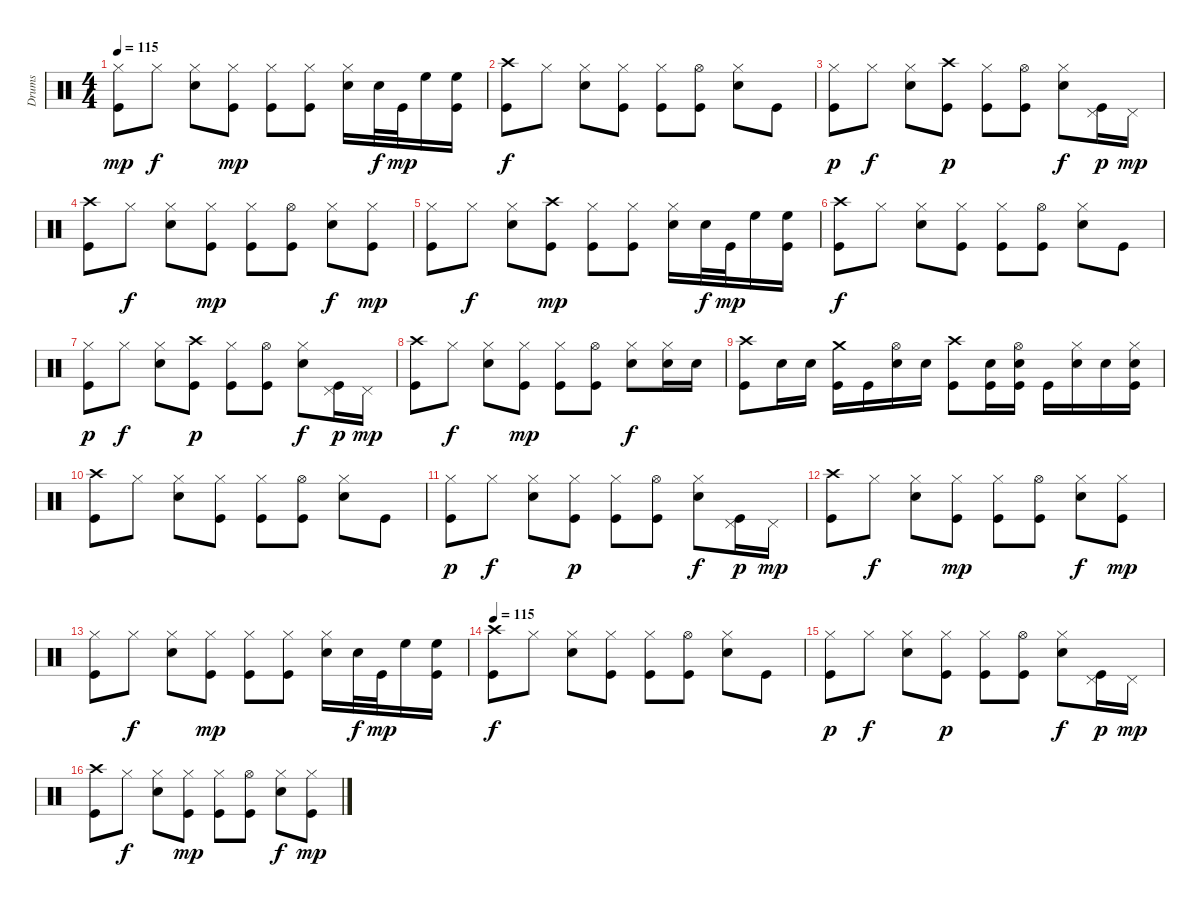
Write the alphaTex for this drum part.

\track ("Drums" "Drums") {instrument percussion}
\staff {score}
\articulation defaults
\ts (4 4)
\tempo 115
\clef neutral
\ks c
("Hi-Hat (closed)" "Kick (hit)").8{dy mp} "Hi-Hat (closed)".8{dy f} ("Hi-Hat (closed)" "Snare (hit) 2").8 ("Hi-Hat (closed)" "Kick (hit)").8{dy mp} ("Hi-Hat (closed)" "Kick (hit)").8 ("Hi-Hat (closed)" "Kick (hit)").8 ("Hi-Hat (closed)" "Snare (hit) 2").16 "Snare (hit) 2".32{dy f} "Kick (hit)".32{dy mp} "High Floor Tom (hit)".16 ("High Floor Tom (hit)" "Kick (hit)").16 |
("Crash high (hit)" "Kick (hit)").8{dy f} "Hi-Hat (closed)".8 ("Hi-Hat (closed)" "Snare (hit) 2").8 ("Hi-Hat (closed)" "Kick (hit)").8 ("Hi-Hat (closed)" "Kick (hit)").8 ("Hi-Hat (open)" "Kick (hit)").8 ("Hi-Hat (closed)" "Snare (hit) 2").8 "Kick (hit)".8 |
("Hi-Hat (closed)" "Kick (hit)").8{dy p} "Hi-Hat (closed)".8{dy f} ("Hi-Hat (closed)" "Snare (hit) 2").8 ("Crash high (hit)" "Kick (hit)").8{dy p} ("Hi-Hat (closed)" "Kick (hit)").8 ("Hi-Hat (open)" "Kick (hit)").8 ("Hi-Hat (closed)" "Snare (hit) 2").8{dy f} ("Pedal Hi-Hat (hit)" "Kick (hit)").16{dy p} "Pedal Hi-Hat (hit)".16{dy mp} |
("Crash high (hit)" "Kick (hit)").8 "Hi-Hat (closed)".8{dy f} ("Hi-Hat (closed)" "Snare (hit) 2").8 ("Hi-Hat (closed)" "Kick (hit)").8{dy mp} ("Hi-Hat (closed)" "Kick (hit)").8 ("Hi-Hat (open)" "Kick (hit)").8 ("Hi-Hat (closed)" "Snare (hit) 2").8{dy f} ("Hi-Hat (closed)" "Kick (hit)").8{dy mp} |
("Hi-Hat (closed)" "Kick (hit)").8 "Hi-Hat (closed)".8{dy f} ("Hi-Hat (closed)" "Snare (hit) 2").8 ("Crash high (hit)" "Kick (hit)").8{dy mp} ("Hi-Hat (closed)" "Kick (hit)").8 ("Hi-Hat (closed)" "Kick (hit)").8 ("Hi-Hat (closed)" "Snare (hit) 2").16 "Snare (hit) 2".32{dy f} "Kick (hit)".32{dy mp} "High Floor Tom (hit)".16 ("High Floor Tom (hit)" "Kick (hit)").16 |
("Crash high (hit)" "Kick (hit)").8{dy f} "Hi-Hat (closed)".8 ("Hi-Hat (closed)" "Snare (hit) 2").8 ("Hi-Hat (closed)" "Kick (hit)").8 ("Hi-Hat (closed)" "Kick (hit)").8 ("Hi-Hat (open)" "Kick (hit)").8 ("Hi-Hat (closed)" "Snare (hit) 2").8 "Kick (hit)".8 |
("Hi-Hat (closed)" "Kick (hit)").8{dy p} "Hi-Hat (closed)".8{dy f} ("Hi-Hat (closed)" "Snare (hit) 2").8 ("Crash high (hit)" "Kick (hit)").8{dy p} ("Hi-Hat (closed)" "Kick (hit)").8 ("Hi-Hat (open)" "Kick (hit)").8 ("Hi-Hat (closed)" "Snare (hit) 2").8{dy f} ("Pedal Hi-Hat (hit)" "Kick (hit)").16{dy p} "Pedal Hi-Hat (hit)".16{dy mp} |
("Crash high (hit)" "Kick (hit)").8 "Hi-Hat (closed)".8{dy f} ("Hi-Hat (closed)" "Snare (hit) 2").8 ("Hi-Hat (closed)" "Kick (hit)").8{dy mp} ("Hi-Hat (closed)" "Kick (hit)").8 ("Hi-Hat (open)" "Kick (hit)").8 ("Hi-Hat (closed)" "Snare (hit) 2").8{dy f} ("Hi-Hat (closed)" "Snare (hit) 2").16 "Snare (hit) 2".16 |
("Crash high (hit)" "Kick (hit)").8 "Snare (hit) 2".16 "Snare (hit) 2".16 ("Crash medium (hit)" "Kick (hit)").16 "Kick (hit)".16 ("Hi-Hat (open)" "Snare (hit) 2").16 "Snare (hit) 2".16 ("Crash high (hit)" "Kick (hit)").8 ("Snare (hit) 2" "Kick (hit)").16 ("Hi-Hat (open)" "Snare (hit) 2" "Kick (hit)").16 "Kick (hit)".16 ("Hi-Hat (closed)" "Snare (hit) 2").16 "Snare (hit) 2".16 ("Hi-Hat (closed)" "Snare (hit) 2" "Kick (hit)").16 |
("Crash high (hit)" "Kick (hit)").8 "Hi-Hat (closed)".8 ("Hi-Hat (closed)" "Snare (hit) 2").8 ("Hi-Hat (closed)" "Kick (hit)").8 ("Hi-Hat (closed)" "Kick (hit)").8 ("Hi-Hat (open)" "Kick (hit)").8 ("Hi-Hat (closed)" "Snare (hit) 2").8 "Kick (hit)".8 |
("Hi-Hat (closed)" "Kick (hit)").8{dy p} "Hi-Hat (closed)".8{dy f} ("Hi-Hat (closed)" "Snare (hit) 2").8 ("Hi-Hat (closed)" "Kick (hit)").8{dy p} ("Hi-Hat (closed)" "Kick (hit)").8 ("Hi-Hat (open)" "Kick (hit)").8 ("Hi-Hat (closed)" "Snare (hit) 2").8{dy f} ("Pedal Hi-Hat (hit)" "Kick (hit)").16{dy p} "Pedal Hi-Hat (hit)".16{dy mp} |
("Crash high (hit)" "Kick (hit)").8 "Hi-Hat (closed)".8{dy f} ("Hi-Hat (closed)" "Snare (hit) 2").8 ("Hi-Hat (closed)" "Kick (hit)").8{dy mp} ("Hi-Hat (closed)" "Kick (hit)").8 ("Hi-Hat (open)" "Kick (hit)").8 ("Hi-Hat (closed)" "Snare (hit) 2").8{dy f} ("Hi-Hat (closed)" "Kick (hit)").8{dy mp} |
("Hi-Hat (closed)" "Kick (hit)").8 "Hi-Hat (closed)".8{dy f} ("Hi-Hat (closed)" "Snare (hit) 2").8 ("Hi-Hat (closed)" "Kick (hit)").8{dy mp} ("Hi-Hat (closed)" "Kick (hit)").8 ("Hi-Hat (closed)" "Kick (hit)").8 ("Hi-Hat (closed)" "Snare (hit) 2").16 "Snare (hit) 2".32{dy f} "Kick (hit)".32{dy mp} "High Floor Tom (hit)".16 ("High Floor Tom (hit)" "Kick (hit)").16 |
\tempo 115
("Crash high (hit)" "Kick (hit)").8{dy f} "Hi-Hat (closed)".8 ("Hi-Hat (closed)" "Snare (hit) 2").8 ("Hi-Hat (closed)" "Kick (hit)").8 ("Hi-Hat (closed)" "Kick (hit)").8 ("Hi-Hat (open)" "Kick (hit)").8 ("Hi-Hat (closed)" "Snare (hit) 2").8 "Kick (hit)".8 |
("Hi-Hat (closed)" "Kick (hit)").8{dy p} "Hi-Hat (closed)".8{dy f} ("Hi-Hat (closed)" "Snare (hit) 2").8 ("Hi-Hat (closed)" "Kick (hit)").8{dy p} ("Hi-Hat (closed)" "Kick (hit)").8 ("Hi-Hat (open)" "Kick (hit)").8 ("Hi-Hat (closed)" "Snare (hit) 2").8{dy f} ("Pedal Hi-Hat (hit)" "Kick (hit)").16{dy p} "Pedal Hi-Hat (hit)".16{dy mp} |
("Crash high (hit)" "Kick (hit)").8 "Hi-Hat (closed)".8{dy f} ("Hi-Hat (closed)" "Snare (hit) 2").8 ("Hi-Hat (closed)" "Kick (hit)").8{dy mp} ("Hi-Hat (closed)" "Kick (hit)").8 ("Hi-Hat (open)" "Kick (hit)").8 ("Hi-Hat (closed)" "Snare (hit) 2").8{dy f} ("Hi-Hat (closed)" "Kick (hit)").8{dy mp}
